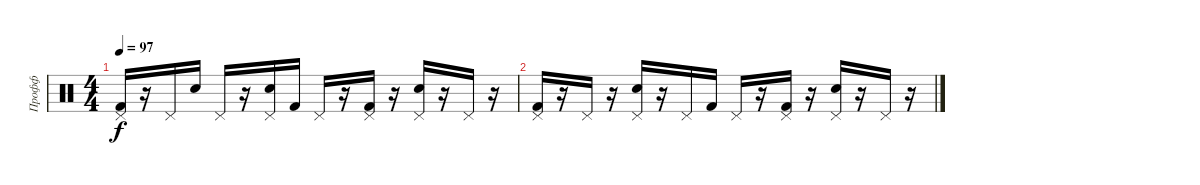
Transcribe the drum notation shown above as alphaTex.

\track ("Профф" "Профф") {instrument percussion}
\staff {score}
\articulation defaults
\ts (4 4)
\tempo 97
\clef neutral
\ks c
("Pedal Hi-Hat (hit)" "Kick (hit) 2").16{dy f} r.16 "Pedal Hi-Hat (hit)".16 "Electric Snare (hit)".16 "Pedal Hi-Hat (hit)".16 r.16 ("Pedal Hi-Hat (hit)" "Electric Snare (hit)").16 "Kick (hit) 2".16 "Pedal Hi-Hat (hit)".16 r.16 ("Pedal Hi-Hat (hit)" "Kick (hit) 2").16 r.16 ("Pedal Hi-Hat (hit)" "Electric Snare (hit)").16 r.16 "Pedal Hi-Hat (hit)".16 r.16 |
("Pedal Hi-Hat (hit)" "Kick (hit) 2").16 r.16 "Pedal Hi-Hat (hit)".16 r.16 ("Pedal Hi-Hat (hit)" "Electric Snare (hit)").16 r.16 "Pedal Hi-Hat (hit)".16 "Kick (hit) 2".16 "Pedal Hi-Hat (hit)".16 r.16 ("Pedal Hi-Hat (hit)" "Kick (hit) 2").16 r.16 ("Pedal Hi-Hat (hit)" "Electric Snare (hit)").16 r.16 "Pedal Hi-Hat (hit)".16 r.16
